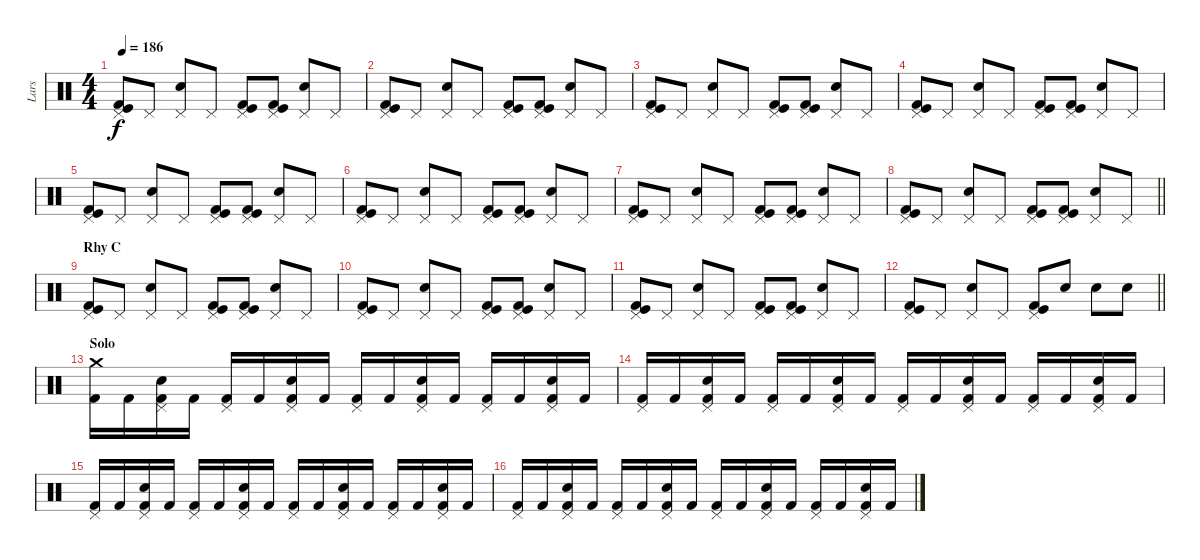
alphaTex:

\track ("Lars" "Lars") {instrument percussion}
\staff {score}
\articulation defaults
\ts (4 4)
\tempo 186
\clef neutral
\ks c
("Pedal Hi-Hat (hit)" "Kick (hit)" "Kick (hit) 2").8{dy f} "Pedal Hi-Hat (hit)".8 ("Pedal Hi-Hat (hit)" "Electric Snare (hit)").8 "Pedal Hi-Hat (hit)".8 ("Pedal Hi-Hat (hit)" "Kick (hit)" "Kick (hit) 2").8 ("Pedal Hi-Hat (hit)" "Kick (hit)" "Kick (hit) 2").8 ("Pedal Hi-Hat (hit)" "Electric Snare (hit)").8 "Pedal Hi-Hat (hit)".8 |
("Pedal Hi-Hat (hit)" "Kick (hit)" "Kick (hit) 2").8 "Pedal Hi-Hat (hit)".8 ("Pedal Hi-Hat (hit)" "Electric Snare (hit)").8 "Pedal Hi-Hat (hit)".8 ("Pedal Hi-Hat (hit)" "Kick (hit)" "Kick (hit) 2").8 ("Pedal Hi-Hat (hit)" "Kick (hit)" "Kick (hit) 2").8 ("Pedal Hi-Hat (hit)" "Electric Snare (hit)").8 "Pedal Hi-Hat (hit)".8 |
("Pedal Hi-Hat (hit)" "Kick (hit)" "Kick (hit) 2").8 "Pedal Hi-Hat (hit)".8 ("Pedal Hi-Hat (hit)" "Electric Snare (hit)").8 "Pedal Hi-Hat (hit)".8 ("Pedal Hi-Hat (hit)" "Kick (hit)" "Kick (hit) 2").8 ("Pedal Hi-Hat (hit)" "Kick (hit)" "Kick (hit) 2").8 ("Pedal Hi-Hat (hit)" "Electric Snare (hit)").8 "Pedal Hi-Hat (hit)".8 |
("Pedal Hi-Hat (hit)" "Kick (hit)" "Kick (hit) 2").8 "Pedal Hi-Hat (hit)".8 ("Pedal Hi-Hat (hit)" "Electric Snare (hit)").8 "Pedal Hi-Hat (hit)".8 ("Pedal Hi-Hat (hit)" "Kick (hit)" "Kick (hit) 2").8 ("Pedal Hi-Hat (hit)" "Kick (hit)" "Kick (hit) 2").8 ("Pedal Hi-Hat (hit)" "Electric Snare (hit)").8 "Pedal Hi-Hat (hit)".8 |
("Pedal Hi-Hat (hit)" "Kick (hit)" "Kick (hit) 2").8 "Pedal Hi-Hat (hit)".8 ("Pedal Hi-Hat (hit)" "Electric Snare (hit)").8 "Pedal Hi-Hat (hit)".8 ("Pedal Hi-Hat (hit)" "Kick (hit)" "Kick (hit) 2").8 ("Pedal Hi-Hat (hit)" "Kick (hit)" "Kick (hit) 2").8 ("Pedal Hi-Hat (hit)" "Electric Snare (hit)").8 "Pedal Hi-Hat (hit)".8 |
("Pedal Hi-Hat (hit)" "Kick (hit)" "Kick (hit) 2").8 "Pedal Hi-Hat (hit)".8 ("Pedal Hi-Hat (hit)" "Electric Snare (hit)").8 "Pedal Hi-Hat (hit)".8 ("Pedal Hi-Hat (hit)" "Kick (hit)" "Kick (hit) 2").8 ("Pedal Hi-Hat (hit)" "Kick (hit)" "Kick (hit) 2").8 ("Pedal Hi-Hat (hit)" "Electric Snare (hit)").8 "Pedal Hi-Hat (hit)".8 |
("Pedal Hi-Hat (hit)" "Kick (hit)" "Kick (hit) 2").8 "Pedal Hi-Hat (hit)".8 ("Pedal Hi-Hat (hit)" "Electric Snare (hit)").8 "Pedal Hi-Hat (hit)".8 ("Pedal Hi-Hat (hit)" "Kick (hit)" "Kick (hit) 2").8 ("Pedal Hi-Hat (hit)" "Kick (hit)" "Kick (hit) 2").8 ("Pedal Hi-Hat (hit)" "Electric Snare (hit)").8 "Pedal Hi-Hat (hit)".8 |
\barLineRight lightlight
("Pedal Hi-Hat (hit)" "Kick (hit)" "Kick (hit) 2").8 "Pedal Hi-Hat (hit)".8 ("Pedal Hi-Hat (hit)" "Electric Snare (hit)").8 "Pedal Hi-Hat (hit)".8 ("Pedal Hi-Hat (hit)" "Kick (hit)" "Kick (hit) 2").8 ("Pedal Hi-Hat (hit)" "Kick (hit)" "Kick (hit) 2").8 ("Pedal Hi-Hat (hit)" "Electric Snare (hit)").8 "Pedal Hi-Hat (hit)".8 |
\section ("" "Rhy C")
("Pedal Hi-Hat (hit)" "Kick (hit)" "Kick (hit) 2").8 "Pedal Hi-Hat (hit)".8 ("Pedal Hi-Hat (hit)" "Electric Snare (hit)").8 "Pedal Hi-Hat (hit)".8 ("Pedal Hi-Hat (hit)" "Kick (hit)" "Kick (hit) 2").8 ("Pedal Hi-Hat (hit)" "Kick (hit)" "Kick (hit) 2").8 ("Pedal Hi-Hat (hit)" "Electric Snare (hit)").8 "Pedal Hi-Hat (hit)".8 |
("Pedal Hi-Hat (hit)" "Kick (hit)" "Kick (hit) 2").8 "Pedal Hi-Hat (hit)".8 ("Pedal Hi-Hat (hit)" "Electric Snare (hit)").8 "Pedal Hi-Hat (hit)".8 ("Pedal Hi-Hat (hit)" "Kick (hit)" "Kick (hit) 2").8 ("Pedal Hi-Hat (hit)" "Kick (hit)" "Kick (hit) 2").8 ("Pedal Hi-Hat (hit)" "Electric Snare (hit)").8 "Pedal Hi-Hat (hit)".8 |
("Pedal Hi-Hat (hit)" "Kick (hit)" "Kick (hit) 2").8 "Pedal Hi-Hat (hit)".8 ("Pedal Hi-Hat (hit)" "Electric Snare (hit)").8 "Pedal Hi-Hat (hit)".8 ("Pedal Hi-Hat (hit)" "Kick (hit)" "Kick (hit) 2").8 ("Pedal Hi-Hat (hit)" "Kick (hit)" "Kick (hit) 2").8 ("Pedal Hi-Hat (hit)" "Electric Snare (hit)").8 "Pedal Hi-Hat (hit)".8 |
\barLineRight lightlight
("Pedal Hi-Hat (hit)" "Kick (hit)" "Kick (hit) 2").8 "Pedal Hi-Hat (hit)".8 ("Pedal Hi-Hat (hit)" "Electric Snare (hit)").8 "Pedal Hi-Hat (hit)".8 ("Pedal Hi-Hat (hit)" "Kick (hit)" "Kick (hit) 2").8 "Electric Snare (hit)".8 "Electric Snare (hit)".8 "Electric Snare (hit)".8 |
\section ("" "Solo")
("Crash medium (hit)" "Kick (hit) 2").16 "Kick (hit) 2".16 ("Pedal Hi-Hat (hit)" "Electric Snare (hit)" "Kick (hit) 2").16 "Kick (hit) 2".16 ("Pedal Hi-Hat (hit)" "Kick (hit) 2").16 "Kick (hit) 2".16 ("Pedal Hi-Hat (hit)" "Electric Snare (hit)" "Kick (hit) 2").16 "Kick (hit) 2".16 ("Pedal Hi-Hat (hit)" "Kick (hit) 2").16 "Kick (hit) 2".16 ("Pedal Hi-Hat (hit)" "Electric Snare (hit)" "Kick (hit) 2").16 "Kick (hit) 2".16 ("Pedal Hi-Hat (hit)" "Kick (hit) 2").16 "Kick (hit) 2".16 ("Pedal Hi-Hat (hit)" "Electric Snare (hit)" "Kick (hit) 2").16 "Kick (hit) 2".16 |
("Pedal Hi-Hat (hit)" "Kick (hit) 2").16 "Kick (hit) 2".16 ("Pedal Hi-Hat (hit)" "Electric Snare (hit)" "Kick (hit) 2").16 "Kick (hit) 2".16 ("Pedal Hi-Hat (hit)" "Kick (hit) 2").16 "Kick (hit) 2".16 ("Pedal Hi-Hat (hit)" "Electric Snare (hit)" "Kick (hit) 2").16 "Kick (hit) 2".16 ("Pedal Hi-Hat (hit)" "Kick (hit) 2").16 "Kick (hit) 2".16 ("Pedal Hi-Hat (hit)" "Electric Snare (hit)" "Kick (hit) 2").16 "Kick (hit) 2".16 ("Pedal Hi-Hat (hit)" "Kick (hit) 2").16 "Kick (hit) 2".16 ("Pedal Hi-Hat (hit)" "Electric Snare (hit)" "Kick (hit) 2").16 "Kick (hit) 2".16 |
("Pedal Hi-Hat (hit)" "Kick (hit) 2").16 "Kick (hit) 2".16 ("Pedal Hi-Hat (hit)" "Electric Snare (hit)" "Kick (hit) 2").16 "Kick (hit) 2".16 ("Pedal Hi-Hat (hit)" "Kick (hit) 2").16 "Kick (hit) 2".16 ("Pedal Hi-Hat (hit)" "Electric Snare (hit)" "Kick (hit) 2").16 "Kick (hit) 2".16 ("Pedal Hi-Hat (hit)" "Kick (hit) 2").16 "Kick (hit) 2".16 ("Pedal Hi-Hat (hit)" "Electric Snare (hit)" "Kick (hit) 2").16 "Kick (hit) 2".16 ("Pedal Hi-Hat (hit)" "Kick (hit) 2").16 "Kick (hit) 2".16 ("Pedal Hi-Hat (hit)" "Electric Snare (hit)" "Kick (hit) 2").16 "Kick (hit) 2".16 |
("Pedal Hi-Hat (hit)" "Kick (hit) 2").16 "Kick (hit) 2".16 ("Pedal Hi-Hat (hit)" "Electric Snare (hit)" "Kick (hit) 2").16 "Kick (hit) 2".16 ("Pedal Hi-Hat (hit)" "Kick (hit) 2").16 "Kick (hit) 2".16 ("Pedal Hi-Hat (hit)" "Electric Snare (hit)" "Kick (hit) 2").16 "Kick (hit) 2".16 ("Pedal Hi-Hat (hit)" "Kick (hit) 2").16 "Kick (hit) 2".16 ("Pedal Hi-Hat (hit)" "Electric Snare (hit)" "Kick (hit) 2").16 "Kick (hit) 2".16 ("Pedal Hi-Hat (hit)" "Kick (hit) 2").16 "Kick (hit) 2".16 ("Pedal Hi-Hat (hit)" "Electric Snare (hit)" "Kick (hit) 2").16 "Kick (hit) 2".16
